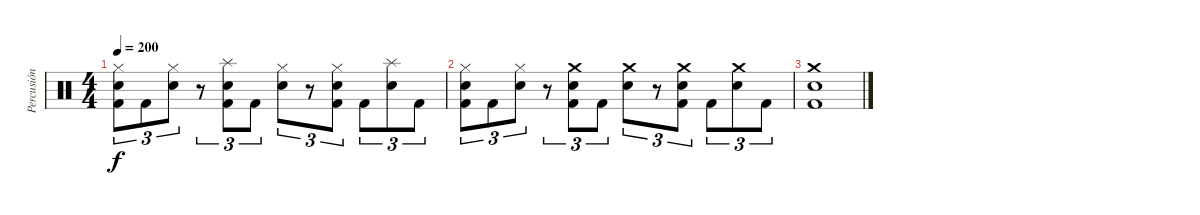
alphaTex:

\track ("Percusión" "Percusión") {instrument percussion}
\staff {score}
\articulation defaults
\ts (4 4)
\tempo 200
\clef neutral
\ks c
("Hi-Hat (closed)" "Snare (hit) 2" "Kick (hit) 2").8{tu (3 2) dy f} "Kick (hit) 2".8{tu (3 2)} ("Hi-Hat (closed)" "Snare (hit) 2").8{tu (3 2)} r.8{tu (3 2)} ("Splash (hit)" "Snare (hit) 2" "Kick (hit) 2").8{tu (3 2)} "Kick (hit) 2".8{tu (3 2)} ("Hi-Hat (closed)" "Snare (hit) 2").8{tu (3 2)} r.8{tu (3 2)} ("Hi-Hat (closed)" "Snare (hit) 2" "Kick (hit) 2").8{tu (3 2)} "Kick (hit) 2".8{tu (3 2)} ("Splash (hit)" "Snare (hit) 2").8{tu (3 2)} "Kick (hit) 2".8{tu (3 2)} |
("Hi-Hat (closed)" "Snare (hit) 2" "Kick (hit) 2").8{tu (3 2)} "Kick (hit) 2".8{tu (3 2)} ("Hi-Hat (closed)" "Snare (hit) 2").8{tu (3 2)} r.8{tu (3 2)} ("Crash medium (hit)" "Snare (hit) 2" "Kick (hit) 2").8{tu (3 2)} "Kick (hit) 2".8{tu (3 2)} ("Crash medium (hit)" "Snare (hit) 2").8{tu (3 2)} r.8{tu (3 2)} ("Crash medium (hit)" "Snare (hit) 2" "Kick (hit) 2").8{tu (3 2)} "Kick (hit) 2".8{tu (3 2)} ("Crash medium (hit)" "Snare (hit) 2").8{tu (3 2)} "Kick (hit) 2".8{tu (3 2)} |
("Crash medium (hit)" "Snare (hit) 2" "Kick (hit) 2").1
